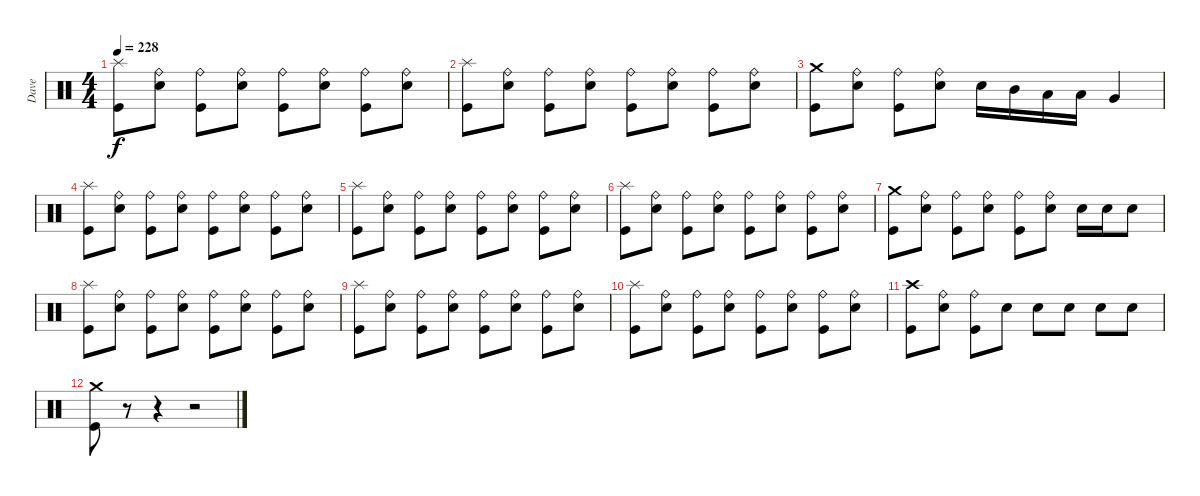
\track ("Dave" "Dave") {instrument percussion}
\staff {score}
\articulation defaults
\ts (4 4)
\tempo 228
\clef neutral
\ks c
("Kick (hit)" "Splash (hit)").8{dy f} ("Electric Snare (hit)" "Ride (bell)").8 ("Kick (hit)" "Ride (bell)").8 ("Electric Snare (hit)" "Ride (bell)").8 ("Kick (hit)" "Ride (bell)").8 ("Electric Snare (hit)" "Ride (bell)").8 ("Kick (hit)" "Ride (bell)").8 ("Electric Snare (hit)" "Ride (bell)").8 |
("Kick (hit)" "Splash (hit)").8 ("Electric Snare (hit)" "Ride (bell)").8 ("Kick (hit)" "Ride (bell)").8 ("Electric Snare (hit)" "Ride (bell)").8 ("Kick (hit)" "Ride (bell)").8 ("Electric Snare (hit)" "Ride (bell)").8 ("Kick (hit)" "Ride (bell)").8 ("Electric Snare (hit)" "Ride (bell)").8 |
("Kick (hit)" "Crash medium (hit)").8 ("Electric Snare (hit)" "Ride (bell)").8 ("Kick (hit)" "Ride (bell)").8 ("Electric Snare (hit)" "Ride (bell)").8 "Electric Snare (hit)".16 "Mid Tom (hit)".16 "Low Tom (hit)".16 "Low Tom (hit)".16 "Very Low Tom (hit)".4 |
("Kick (hit)" "Splash (hit)").8 ("Electric Snare (hit)" "Ride (bell)").8 ("Kick (hit)" "Ride (bell)").8 ("Electric Snare (hit)" "Ride (bell)").8 ("Kick (hit)" "Ride (bell)").8 ("Electric Snare (hit)" "Ride (bell)").8 ("Kick (hit)" "Ride (bell)").8 ("Electric Snare (hit)" "Ride (bell)").8 |
("Kick (hit)" "Splash (hit)").8 ("Electric Snare (hit)" "Ride (bell)").8 ("Kick (hit)" "Ride (bell)").8 ("Electric Snare (hit)" "Ride (bell)").8 ("Kick (hit)" "Ride (bell)").8 ("Electric Snare (hit)" "Ride (bell)").8 ("Kick (hit)" "Ride (bell)").8 ("Electric Snare (hit)" "Ride (bell)").8 |
("Kick (hit)" "Splash (hit)").8 ("Electric Snare (hit)" "Ride (bell)").8 ("Kick (hit)" "Ride (bell)").8 ("Electric Snare (hit)" "Ride (bell)").8 ("Kick (hit)" "Ride (bell)").8 ("Electric Snare (hit)" "Ride (bell)").8 ("Kick (hit)" "Ride (bell)").8 ("Electric Snare (hit)" "Ride (bell)").8 |
("Kick (hit)" "Crash medium (hit)").8 ("Electric Snare (hit)" "Ride (bell)").8 ("Kick (hit)" "Ride (bell)").8 ("Electric Snare (hit)" "Ride (bell)").8 ("Kick (hit)" "Ride (bell)").8 ("Electric Snare (hit)" "Ride (bell)").8 "Electric Snare (hit)".16 "Electric Snare (hit)".16 "Electric Snare (hit)".8 |
("Kick (hit)" "Splash (hit)").8 ("Electric Snare (hit)" "Ride (bell)").8 ("Kick (hit)" "Ride (bell)").8 ("Electric Snare (hit)" "Ride (bell)").8 ("Kick (hit)" "Ride (bell)").8 ("Electric Snare (hit)" "Ride (bell)").8 ("Kick (hit)" "Ride (bell)").8 ("Electric Snare (hit)" "Ride (bell)").8 |
("Kick (hit)" "Splash (hit)").8 ("Electric Snare (hit)" "Ride (bell)").8 ("Kick (hit)" "Ride (bell)").8 ("Electric Snare (hit)" "Ride (bell)").8 ("Kick (hit)" "Ride (bell)").8 ("Electric Snare (hit)" "Ride (bell)").8 ("Kick (hit)" "Ride (bell)").8 ("Electric Snare (hit)" "Ride (bell)").8 |
("Kick (hit)" "Splash (hit)").8 ("Electric Snare (hit)" "Ride (bell)").8 ("Kick (hit)" "Ride (bell)").8 ("Electric Snare (hit)" "Ride (bell)").8 ("Kick (hit)" "Ride (bell)").8 ("Electric Snare (hit)" "Ride (bell)").8 ("Kick (hit)" "Ride (bell)").8 ("Electric Snare (hit)" "Ride (bell)").8 |
("Kick (hit)" "Crash high (hit)").8 ("Electric Snare (hit)" "Ride (bell)").8 ("Kick (hit)" "Ride (bell)").8 "Electric Snare (hit)".8 "Electric Snare (hit)".8 "Electric Snare (hit)".8 "Electric Snare (hit)".8 "Electric Snare (hit)".8 |
("Kick (hit)" "Crash medium (hit)").8 r.8 r.4 r.2
